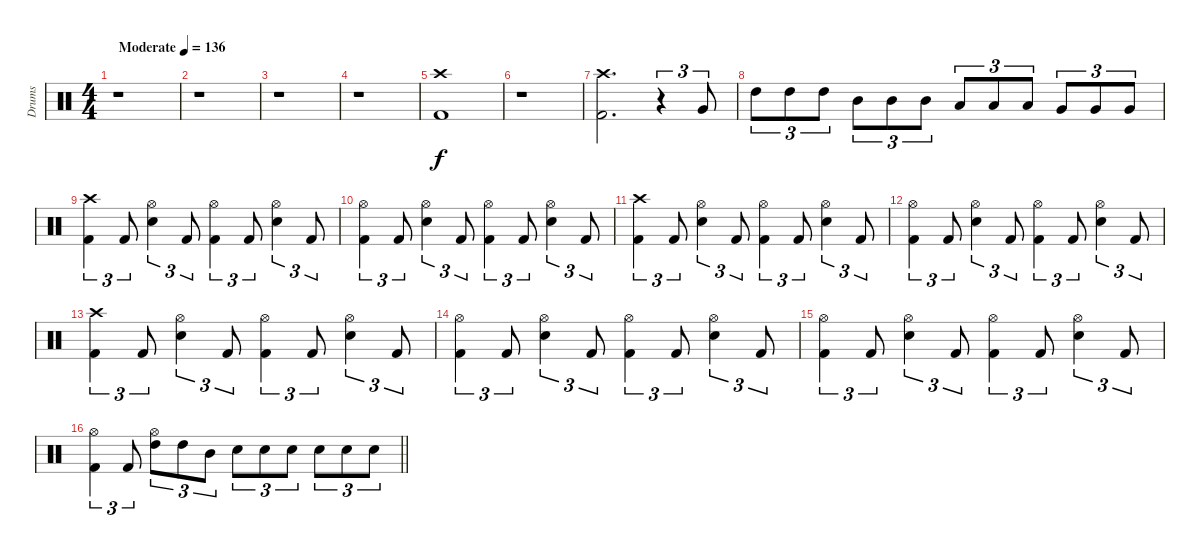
\track ("Drums" "Drums") {instrument percussion}
\staff {score}
\articulation defaults
\ts (4 4)
\tempo (136 "Moderate")
\clef neutral
\ks c
r.1{dy f} |
r.1 |
r.1 |
r.1 |
("Crash high (hit)" "Kick (hit) 2").1 |
r.1 |
("Crash high (hit)" "Kick (hit) 2").2{d} r.4{tu (3 2)} "Very Low Tom (hit)".8{tu (3 2)} |
"High Tom (hit)".8{tu (3 2)} "High Tom (hit)".8{tu (3 2)} "High Tom (hit)".8{tu (3 2)} "Mid Tom (hit)".8{tu (3 2)} "Mid Tom (hit)".8{tu (3 2)} "Mid Tom (hit)".8{tu (3 2)} "Low Tom (hit)".8{tu (3 2)} "Low Tom (hit)".8{tu (3 2)} "Low Tom (hit)".8{tu (3 2)} "Very Low Tom (hit)".8{tu (3 2)} "Very Low Tom (hit)".8{tu (3 2)} "Very Low Tom (hit)".8{tu (3 2)} |
("Crash high (hit)" "Kick (hit) 2").4{tu (3 2)} "Kick (hit) 2".8{tu (3 2)} ("Hi-Hat (open)" "Electric Snare (hit)").4{tu (3 2)} "Kick (hit) 2".8{tu (3 2)} ("Hi-Hat (open)" "Kick (hit) 2").4{tu (3 2)} "Kick (hit) 2".8{tu (3 2)} ("Hi-Hat (open)" "Electric Snare (hit)").4{tu (3 2)} "Kick (hit) 2".8{tu (3 2)} |
("Hi-Hat (open)" "Kick (hit) 2").4{tu (3 2)} "Kick (hit) 2".8{tu (3 2)} ("Hi-Hat (open)" "Electric Snare (hit)").4{tu (3 2)} "Kick (hit) 2".8{tu (3 2)} ("Hi-Hat (open)" "Kick (hit) 2").4{tu (3 2)} "Kick (hit) 2".8{tu (3 2)} ("Hi-Hat (open)" "Electric Snare (hit)").4{tu (3 2)} "Kick (hit) 2".8{tu (3 2)} |
("Crash high (hit)" "Kick (hit) 2").4{tu (3 2)} "Kick (hit) 2".8{tu (3 2)} ("Hi-Hat (open)" "Electric Snare (hit)").4{tu (3 2)} "Kick (hit) 2".8{tu (3 2)} ("Hi-Hat (open)" "Kick (hit) 2").4{tu (3 2)} "Kick (hit) 2".8{tu (3 2)} ("Hi-Hat (open)" "Electric Snare (hit)").4{tu (3 2)} "Kick (hit) 2".8{tu (3 2)} |
("Hi-Hat (open)" "Kick (hit) 2").4{tu (3 2)} "Kick (hit) 2".8{tu (3 2)} ("Hi-Hat (open)" "Electric Snare (hit)").4{tu (3 2)} "Kick (hit) 2".8{tu (3 2)} ("Hi-Hat (open)" "Kick (hit) 2").4{tu (3 2)} "Kick (hit) 2".8{tu (3 2)} ("Hi-Hat (open)" "Electric Snare (hit)").4{tu (3 2)} "Kick (hit) 2".8{tu (3 2)} |
("Crash high (hit)" "Kick (hit) 2").4{tu (3 2)} "Kick (hit) 2".8{tu (3 2)} ("Hi-Hat (open)" "Electric Snare (hit)").4{tu (3 2)} "Kick (hit) 2".8{tu (3 2)} ("Hi-Hat (open)" "Kick (hit) 2").4{tu (3 2)} "Kick (hit) 2".8{tu (3 2)} ("Hi-Hat (open)" "Electric Snare (hit)").4{tu (3 2)} "Kick (hit) 2".8{tu (3 2)} |
("Hi-Hat (open)" "Kick (hit) 2").4{tu (3 2)} "Kick (hit) 2".8{tu (3 2)} ("Hi-Hat (open)" "Electric Snare (hit)").4{tu (3 2)} "Kick (hit) 2".8{tu (3 2)} ("Hi-Hat (open)" "Kick (hit) 2").4{tu (3 2)} "Kick (hit) 2".8{tu (3 2)} ("Hi-Hat (open)" "Electric Snare (hit)").4{tu (3 2)} "Kick (hit) 2".8{tu (3 2)} |
("Hi-Hat (open)" "Kick (hit) 2").4{tu (3 2)} "Kick (hit) 2".8{tu (3 2)} ("Hi-Hat (open)" "Electric Snare (hit)").4{tu (3 2)} "Kick (hit) 2".8{tu (3 2)} ("Hi-Hat (open)" "Kick (hit) 2").4{tu (3 2)} "Kick (hit) 2".8{tu (3 2)} ("Hi-Hat (open)" "Electric Snare (hit)").4{tu (3 2)} "Kick (hit) 2".8{tu (3 2)} |
\barLineRight lightlight
("Hi-Hat (open)" "Kick (hit) 2").4{tu (3 2)} "Kick (hit) 2".8{tu (3 2)} ("Hi-Hat (open)" "High Tom (hit)").8{tu (3 2)} "High Tom (hit)".8{tu (3 2)} "Mid Tom (hit)".8{tu (3 2)} "Electric Snare (hit)".8{tu (3 2)} "Electric Snare (hit)".8{tu (3 2)} "Electric Snare (hit)".8{tu (3 2)} "Electric Snare (hit)".8{tu (3 2)} "Electric Snare (hit)".8{tu (3 2)} "Electric Snare (hit)".8{tu (3 2)}
